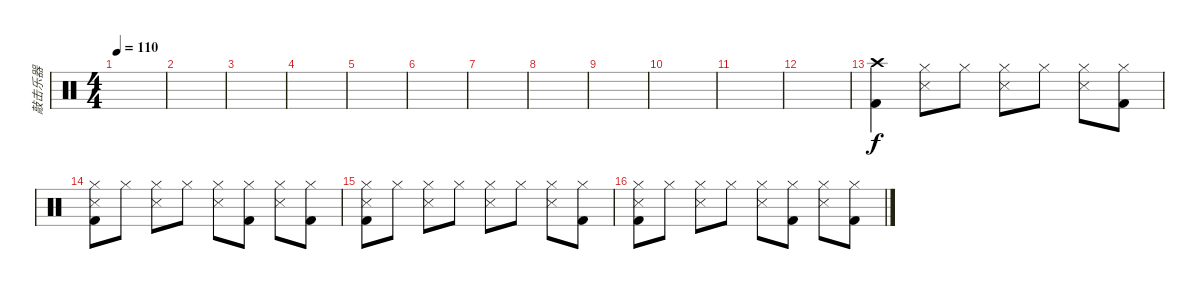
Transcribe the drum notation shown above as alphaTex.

\track ("敲击乐器" "敲击乐器") {instrument percussion}
\staff {score}
\articulation defaults
\ts (4 4)
\tempo 110
\clef neutral
\ks c
|
|
|
|
|
|
|
|
|
|
|
|
("Crash high (hit)" "Kick (hit) 2").4 ("Hi-Hat (closed)" "Metronome (hit)").8 "Hi-Hat (closed)".8 ("Hi-Hat (closed)" "Metronome (hit)").8 "Hi-Hat (closed)".8 ("Hi-Hat (closed)" "Metronome (hit)").8 ("Hi-Hat (closed)" "Kick (hit) 2").8 |
("Hi-Hat (closed)" "Metronome (hit)" "Kick (hit) 2").8 "Hi-Hat (closed)".8 ("Hi-Hat (closed)" "Metronome (hit)").8 "Hi-Hat (closed)".8 ("Hi-Hat (closed)" "Metronome (hit)").8 ("Hi-Hat (closed)" "Kick (hit) 2").8 ("Hi-Hat (closed)" "Metronome (hit)").8 ("Hi-Hat (closed)" "Kick (hit) 2").8 |
("Hi-Hat (closed)" "Metronome (hit)" "Kick (hit) 2").8 "Hi-Hat (closed)".8 ("Hi-Hat (closed)" "Metronome (hit)").8 "Hi-Hat (closed)".8 ("Hi-Hat (closed)" "Metronome (hit)").8 "Hi-Hat (closed)".8 ("Hi-Hat (closed)" "Metronome (hit)").8 ("Hi-Hat (closed)" "Kick (hit) 2").8 |
("Hi-Hat (closed)" "Metronome (hit)" "Kick (hit) 2").8 "Hi-Hat (closed)".8 ("Hi-Hat (closed)" "Metronome (hit)").8 "Hi-Hat (closed)".8 ("Hi-Hat (closed)" "Metronome (hit)").8 ("Hi-Hat (closed)" "Kick (hit) 2").8 ("Hi-Hat (closed)" "Metronome (hit)").8 ("Hi-Hat (closed)" "Kick (hit) 2").8
